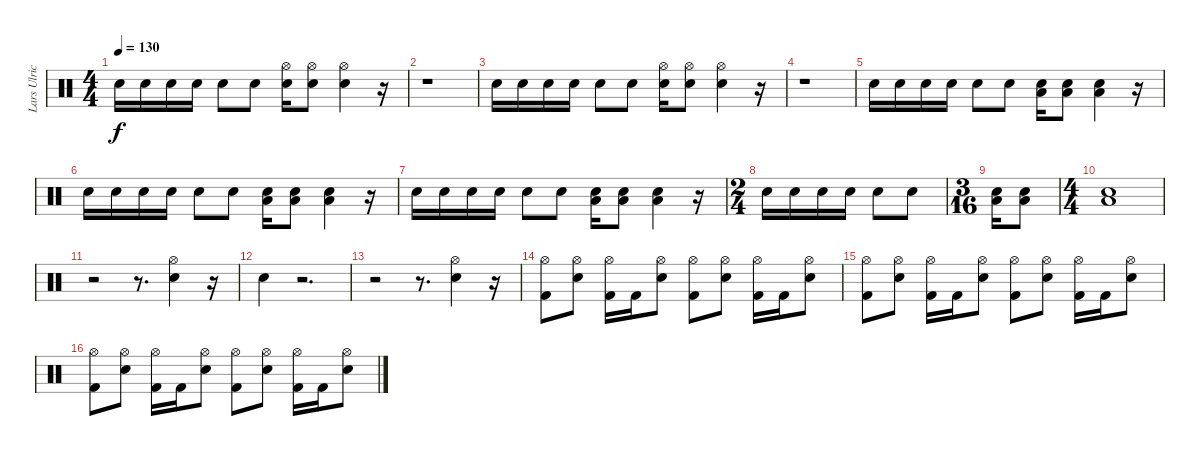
\track ("Lars Ulrich" "Lars Ulric") {instrument percussion}
\staff {score}
\articulation defaults
\ts (4 4)
\tempo 130
\clef neutral
\ks c "Electric Snare (hit)".16{dy f} "Electric Snare (hit)".16 "Electric Snare (hit)".16 "Electric Snare (hit)".16 "Electric Snare (hit)".8 "Electric Snare (hit)".8
("Hi-Hat (open)" "Electric Snare (hit)").16 ("Hi-Hat (open)" "Electric Snare (hit)").8 ("Hi-Hat (open)" "Electric Snare (hit)").4 r.16 |
r.1 |
"Electric Snare (hit)".16 "Electric Snare (hit)".16 "Electric Snare (hit)".16 "Electric Snare (hit)".16 "Electric Snare (hit)".8 "Electric Snare (hit)".8 ("Hi-Hat (open)" "Electric Snare (hit)").16 ("Hi-Hat (open)" "Electric Snare (hit)").8 ("Hi-Hat (open)" "Electric Snare (hit)").4 r.16 |
r.1 |
"Electric Snare (hit)".16 "Electric Snare (hit)".16 "Electric Snare (hit)".16 "Electric Snare (hit)".16 "Electric Snare (hit)".8 "Electric Snare (hit)".8 ("Electric Snare (hit)" "Low Floor Tom (hit)").16 ("Electric Snare (hit)" "Low Floor Tom (hit)").8 ("Electric Snare (hit)" "Low Floor Tom (hit)").4 r.16 |
"Electric Snare (hit)".16 "Electric Snare (hit)".16 "Electric Snare (hit)".16 "Electric Snare (hit)".16 "Electric Snare (hit)".8 "Electric Snare (hit)".8 ("Electric Snare (hit)" "Low Floor Tom (hit)").16 ("Electric Snare (hit)" "Low Floor Tom (hit)").8 ("Electric Snare (hit)" "Low Floor Tom (hit)").4 r.16 |
"Electric Snare (hit)".16 "Electric Snare (hit)".16 "Electric Snare (hit)".16 "Electric Snare (hit)".16 "Electric Snare (hit)".8 "Electric Snare (hit)".8 ("Electric Snare (hit)" "Low Floor Tom (hit)").16 ("Electric Snare (hit)" "Low Floor Tom (hit)").8 ("Electric Snare (hit)" "Low Floor Tom (hit)").4 r.16 |
\ts (2 4)
"Electric Snare (hit)".16 "Electric Snare (hit)".16 "Electric Snare (hit)".16 "Electric Snare (hit)".16 "Electric Snare (hit)".8 "Electric Snare (hit)".8 |
\ts (3 16)
("Electric Snare (hit)" "Low Floor Tom (hit)").16 ("Electric Snare (hit)" "Low Floor Tom (hit)").8 |
\ts (4 4)
("Electric Snare (hit)" "Low Floor Tom (hit)").1 |
r.2 r.8{d} ("Hi-Hat (open)" "Electric Snare (hit)").4 r.16 |
"Electric Snare (hit)".4 r.2{d} |
r.2 r.8{d} ("Hi-Hat (open)" "Electric Snare (hit)").4 r.16 |
("Hi-Hat (open)" "Kick (hit) 2").8 ("Hi-Hat (open)" "Electric Snare (hit)").8 ("Hi-Hat (open)" "Kick (hit) 2").16 "Kick (hit) 2".16 ("Hi-Hat (open)" "Electric Snare (hit)").8 ("Hi-Hat (open)" "Kick (hit) 2").8 ("Hi-Hat (open)" "Electric Snare (hit)").8 ("Hi-Hat (open)" "Kick (hit) 2").16 "Kick (hit) 2".16 ("Hi-Hat (open)" "Electric Snare (hit)").8 |
("Hi-Hat (open)" "Kick (hit) 2").8 ("Hi-Hat (open)" "Electric Snare (hit)").8 ("Hi-Hat (open)" "Kick (hit) 2").16 "Kick (hit) 2".16 ("Hi-Hat (open)" "Electric Snare (hit)").8 ("Hi-Hat (open)" "Kick (hit) 2").8 ("Hi-Hat (open)" "Electric Snare (hit)").8 ("Hi-Hat (open)" "Kick (hit) 2").16 "Kick (hit) 2".16 ("Hi-Hat (open)" "Electric Snare (hit)").8 |
("Hi-Hat (open)" "Kick (hit) 2").8 ("Hi-Hat (open)" "Electric Snare (hit)").8 ("Hi-Hat (open)" "Kick (hit) 2").16 "Kick (hit) 2".16 ("Hi-Hat (open)" "Electric Snare (hit)").8 ("Hi-Hat (open)" "Kick (hit) 2").8 ("Hi-Hat (open)" "Electric Snare (hit)").8 ("Hi-Hat (open)" "Kick (hit) 2").16 "Kick (hit) 2".16 ("Hi-Hat (open)" "Electric Snare (hit)").8
